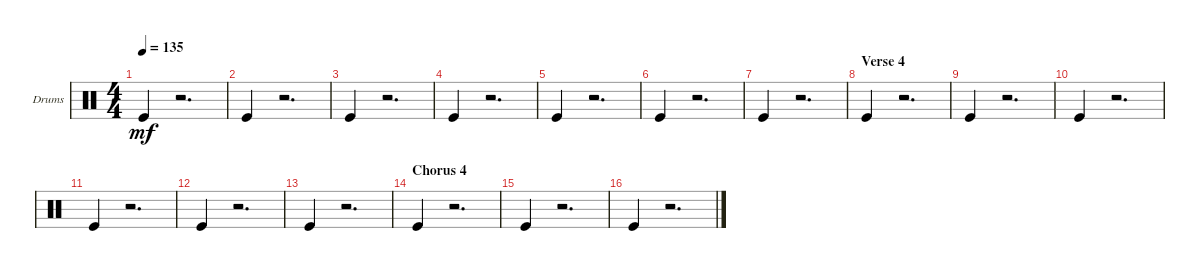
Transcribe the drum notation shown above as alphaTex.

\bracketExtendMode groupsimilarinstruments
\firstSystemTrackNameOrientation horizontal
\otherSystemsTrackNameOrientation horizontal
\chordDiagramsInScore
\track ("Drumkit" "Drums") {instrument percussion}
\staff {score}
\articulation defaults
\ts (4 4)
\tempo 135
\clef neutral
\ks c "Kick (hit)".4{dy mf}
r.2{d} |
"Kick (hit)".4 r.2{d} |
"Kick (hit)".4 r.2{d} |
"Kick (hit)".4 r.2{d} |
"Kick (hit)".4 r.2{d} |
"Kick (hit)".4 r.2{d} |
"Kick (hit)".4 r.2{d} |
\section ("" "Verse 4")
"Kick (hit)".4 r.2{d} |
"Kick (hit)".4 r.2{d} |
"Kick (hit)".4 r.2{d} |
"Kick (hit)".4 r.2{d} |
"Kick (hit)".4 r.2{d} |
"Kick (hit)".4 r.2{d} |
\section ("" "Chorus 4")
"Kick (hit)".4 r.2{d} |
"Kick (hit)".4 r.2{d} |
"Kick (hit)".4 r.2{d}
